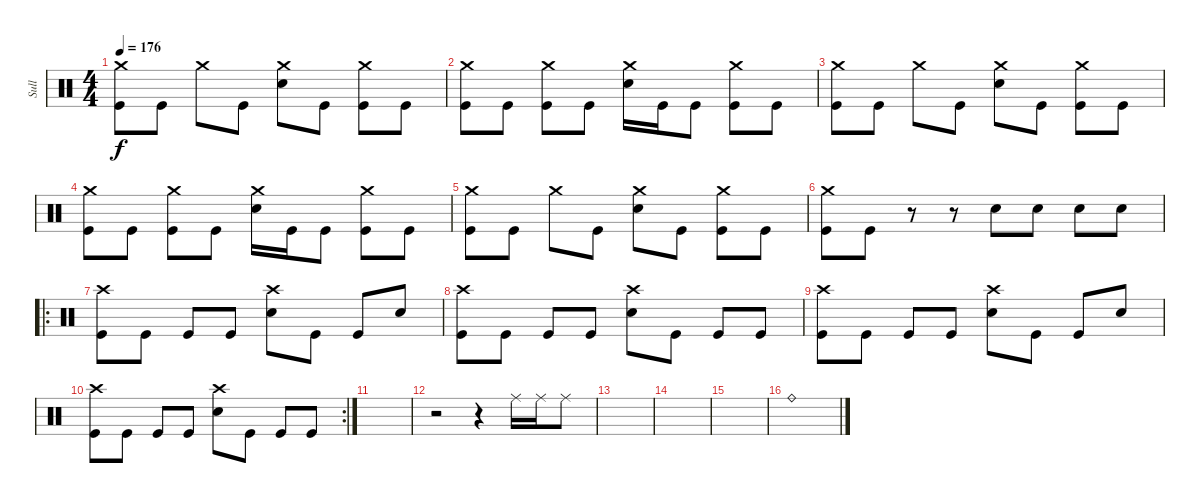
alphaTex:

\track ("Sull" "Sull") {instrument percussion}
\staff {score}
\articulation defaults
\ts (4 4)
\tempo 176
\clef neutral
\ks c
("Crash medium (hit)" "Kick (hit)").8{dy f} "Kick (hit)".8 "Crash medium (hit)".8 "Kick (hit)".8 ("Crash medium (hit)" "Electric Snare (hit)").8 "Kick (hit)".8 ("Crash medium (hit)" "Kick (hit)").8 "Kick (hit)".8 |
("Crash medium (hit)" "Kick (hit)").8 "Kick (hit)".8 ("Crash medium (hit)" "Kick (hit)").8 "Kick (hit)".8 ("Crash medium (hit)" "Electric Snare (hit)").16 "Kick (hit)".16 "Kick (hit)".8 ("Crash medium (hit)" "Kick (hit)").8 "Kick (hit)".8 |
("Crash medium (hit)" "Kick (hit)").8 "Kick (hit)".8 "Crash medium (hit)".8 "Kick (hit)".8 ("Crash medium (hit)" "Electric Snare (hit)").8 "Kick (hit)".8 ("Crash medium (hit)" "Kick (hit)").8 "Kick (hit)".8 |
("Crash medium (hit)" "Kick (hit)").8 "Kick (hit)".8 ("Crash medium (hit)" "Kick (hit)").8 "Kick (hit)".8 ("Crash medium (hit)" "Electric Snare (hit)").16 "Kick (hit)".16 "Kick (hit)".8 ("Crash medium (hit)" "Kick (hit)").8 "Kick (hit)".8 |
("Crash medium (hit)" "Kick (hit)").8 "Kick (hit)".8 "Crash medium (hit)".8 "Kick (hit)".8 ("Crash medium (hit)" "Electric Snare (hit)").8 "Kick (hit)".8 ("Crash medium (hit)" "Kick (hit)").8 "Kick (hit)".8 |
("Crash medium (hit)" "Kick (hit)").8 "Kick (hit)".8 r.8 r.8 "Electric Snare (hit)".8 "Electric Snare (hit)".8 "Electric Snare (hit)".8 "Electric Snare (hit)".8 |
\ro
("Crash high (hit)" "Kick (hit)").8 "Kick (hit)".8 "Kick (hit)".8 "Kick (hit)".8 ("Crash high (hit)" "Electric Snare (hit)").8 "Kick (hit)".8 "Kick (hit)".8 "Electric Snare (hit)".8 |
("Crash high (hit)" "Kick (hit)").8 "Kick (hit)".8 "Kick (hit)".8 "Kick (hit)".8 ("Crash high (hit)" "Electric Snare (hit)").8 "Kick (hit)".8 "Kick (hit)".8 "Kick (hit)".8 |
("Crash high (hit)" "Kick (hit)").8 "Kick (hit)".8 "Kick (hit)".8 "Kick (hit)".8 ("Crash high (hit)" "Electric Snare (hit)").8 "Kick (hit)".8 "Kick (hit)".8 "Electric Snare (hit)".8 |
\rc 2
("Crash high (hit)" "Kick (hit)").8 "Kick (hit)".8 "Kick (hit)".8 "Kick (hit)".8 ("Crash high (hit)" "Electric Snare (hit)").8 "Kick (hit)".8 "Kick (hit)".8 "Kick (hit)".8 |
|
r.2 r.4 "Ride (middle)".16 "Ride (middle)".16 "Ride (middle)".8 |
|
|
|
"Ride (bell)".1
